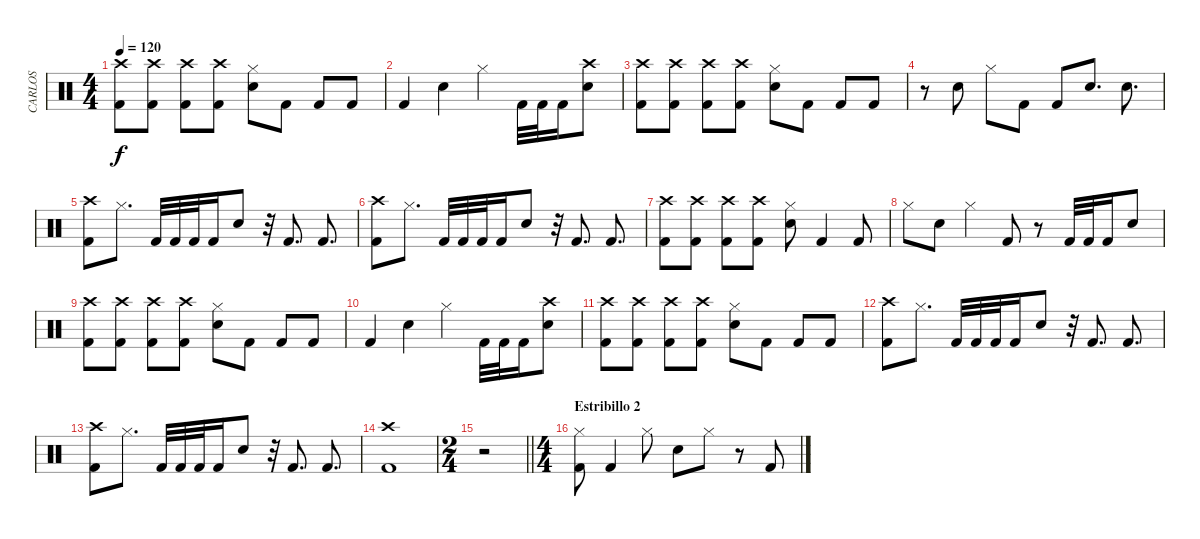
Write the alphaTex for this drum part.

\track ("CARLOS" "CARLOS") {instrument percussion}
\staff {score}
\articulation defaults
\ts (4 4)
\tempo 120
\clef neutral
\ks c
("Crash high (hit)" "Kick (hit) 2").8{dy f} ("Crash high (hit)" "Kick (hit) 2").8 ("Crash high (hit)" "Kick (hit) 2").8 ("Crash high (hit)" "Kick (hit) 2").8 ("Electric Snare (hit)" "Hi-Hat (closed)").8 "Kick (hit) 2".8 "Kick (hit) 2".8 "Kick (hit) 2".8 |
"Kick (hit) 2".4 "Electric Snare (hit)".4 "Hi-Hat (closed)".4 "Kick (hit) 2".32 "Kick (hit) 2".32 "Kick (hit) 2".16 ("Electric Snare (hit)" "Crash high (hit)").8 |
("Crash high (hit)" "Kick (hit) 2").8 ("Crash high (hit)" "Kick (hit) 2").8 ("Crash high (hit)" "Kick (hit) 2").8 ("Crash high (hit)" "Kick (hit) 2").8 ("Electric Snare (hit)" "Hi-Hat (closed)").8 "Kick (hit) 2".8 "Kick (hit) 2".8 "Kick (hit) 2".8 |
r.8 "Electric Snare (hit)".8 "Hi-Hat (closed)".8 "Kick (hit) 2".8 "Kick (hit) 2".8 "Electric Snare (hit)".8{d} "Electric Snare (hit)".8{d} |
("Kick (hit) 2" "Crash high (hit)").8 "Hi-Hat (closed)".8{d} "Kick (hit) 2".32 "Kick (hit) 2".32 "Kick (hit) 2".32 "Kick (hit) 2".16 "Electric Snare (hit)".8 r.32 "Kick (hit) 2".8{d} "Kick (hit) 2".8{d} |
("Kick (hit) 2" "Crash high (hit)").8 "Hi-Hat (closed)".8{d} "Kick (hit) 2".32 "Kick (hit) 2".32 "Kick (hit) 2".32 "Kick (hit) 2".16 "Electric Snare (hit)".8 r.32 "Kick (hit) 2".8{d} "Kick (hit) 2".8{d} |
("Crash high (hit)" "Kick (hit) 2").8 ("Crash high (hit)" "Kick (hit) 2").8 ("Crash high (hit)" "Kick (hit) 2").8 ("Crash high (hit)" "Kick (hit) 2").8 ("Electric Snare (hit)" "Hi-Hat (closed)").8 "Kick (hit) 2".4 "Kick (hit) 2".8 |
"Hi-Hat (closed)".8 "Electric Snare (hit)".8 "Hi-Hat (closed)".4 "Kick (hit) 2".8 r.8 "Kick (hit) 2".32 "Kick (hit) 2".32 "Kick (hit) 2".16 "Electric Snare (hit)".8 |
("Crash high (hit)" "Kick (hit) 2").8 ("Crash high (hit)" "Kick (hit) 2").8 ("Crash high (hit)" "Kick (hit) 2").8 ("Crash high (hit)" "Kick (hit) 2").8 ("Electric Snare (hit)" "Hi-Hat (closed)").8 "Kick (hit) 2".8 "Kick (hit) 2".8 "Kick (hit) 2".8 |
"Kick (hit) 2".4 "Electric Snare (hit)".4 "Hi-Hat (closed)".4 "Kick (hit) 2".32 "Kick (hit) 2".32 "Kick (hit) 2".16 ("Electric Snare (hit)" "Crash high (hit)").8 |
("Crash high (hit)" "Kick (hit) 2").8 ("Crash high (hit)" "Kick (hit) 2").8 ("Crash high (hit)" "Kick (hit) 2").8 ("Crash high (hit)" "Kick (hit) 2").8 ("Electric Snare (hit)" "Hi-Hat (closed)").8 "Kick (hit) 2".8 "Kick (hit) 2".8 "Kick (hit) 2".8 |
("Kick (hit) 2" "Crash high (hit)").8 "Hi-Hat (closed)".8{d} "Kick (hit) 2".32 "Kick (hit) 2".32 "Kick (hit) 2".32 "Kick (hit) 2".16 "Electric Snare (hit)".8 r.32 "Kick (hit) 2".8{d} "Kick (hit) 2".8{d} |
("Kick (hit) 2" "Crash high (hit)").8 "Hi-Hat (closed)".8{d} "Kick (hit) 2".32 "Kick (hit) 2".32 "Kick (hit) 2".32 "Kick (hit) 2".16 "Electric Snare (hit)".8 r.32 "Kick (hit) 2".8{d} "Kick (hit) 2".8{d} |
("Kick (hit) 2" "Crash high (hit)").1 |
\ts (2 4)
\barLineRight lightlight
r.2 |
\ts (4 4)
\section ("" "Estribillo 2")
("Hi-Hat (closed)" "Kick (hit) 2").8 "Kick (hit) 2".4 "Hi-Hat (closed)".8 "Electric Snare (hit)".8 "Hi-Hat (closed)".8 r.8 "Kick (hit) 2".8
